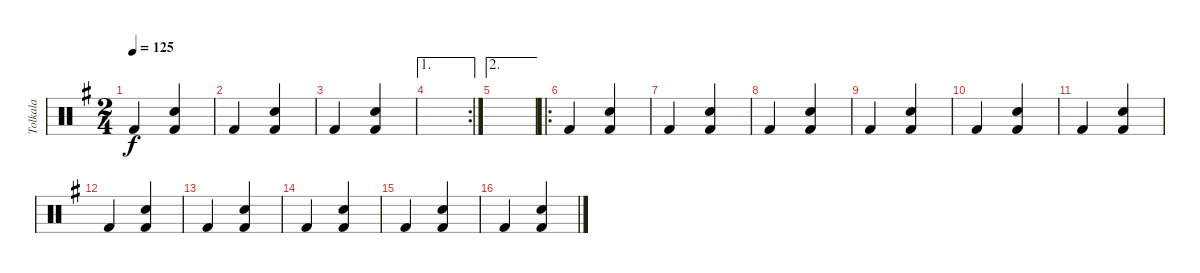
\track ("Tolkala" "Tolkala") {instrument percussion}
\staff {score}
\articulation defaults
\ts (2 4)
\tempo 125
\clef neutral
\ks g "Kick (hit) 2".4{dy f}
("Kick (hit) 2" "Snare (hit) 2").4 |
"Kick (hit) 2".4 ("Kick (hit) 2" "Snare (hit) 2").4 |
"Kick (hit) 2".4 ("Kick (hit) 2" "Snare (hit) 2").4 |
\ae 1
\rc 2
|
\ae 2
|
\ro "Kick (hit) 2".4
("Kick (hit) 2" "Snare (hit) 2").4 |
"Kick (hit) 2".4 ("Kick (hit) 2" "Snare (hit) 2").4 |
"Kick (hit) 2".4 ("Kick (hit) 2" "Snare (hit) 2").4 |
"Kick (hit) 2".4 ("Kick (hit) 2" "Snare (hit) 2").4 |
"Kick (hit) 2".4 ("Kick (hit) 2" "Snare (hit) 2").4 |
"Kick (hit) 2".4 ("Kick (hit) 2" "Snare (hit) 2").4 |
"Kick (hit) 2".4 ("Kick (hit) 2" "Snare (hit) 2").4 |
"Kick (hit) 2".4 ("Kick (hit) 2" "Snare (hit) 2").4 |
"Kick (hit) 2".4 ("Kick (hit) 2" "Snare (hit) 2").4 |
"Kick (hit) 2".4 ("Kick (hit) 2" "Snare (hit) 2").4 |
"Kick (hit) 2".4 ("Kick (hit) 2" "Snare (hit) 2").4
